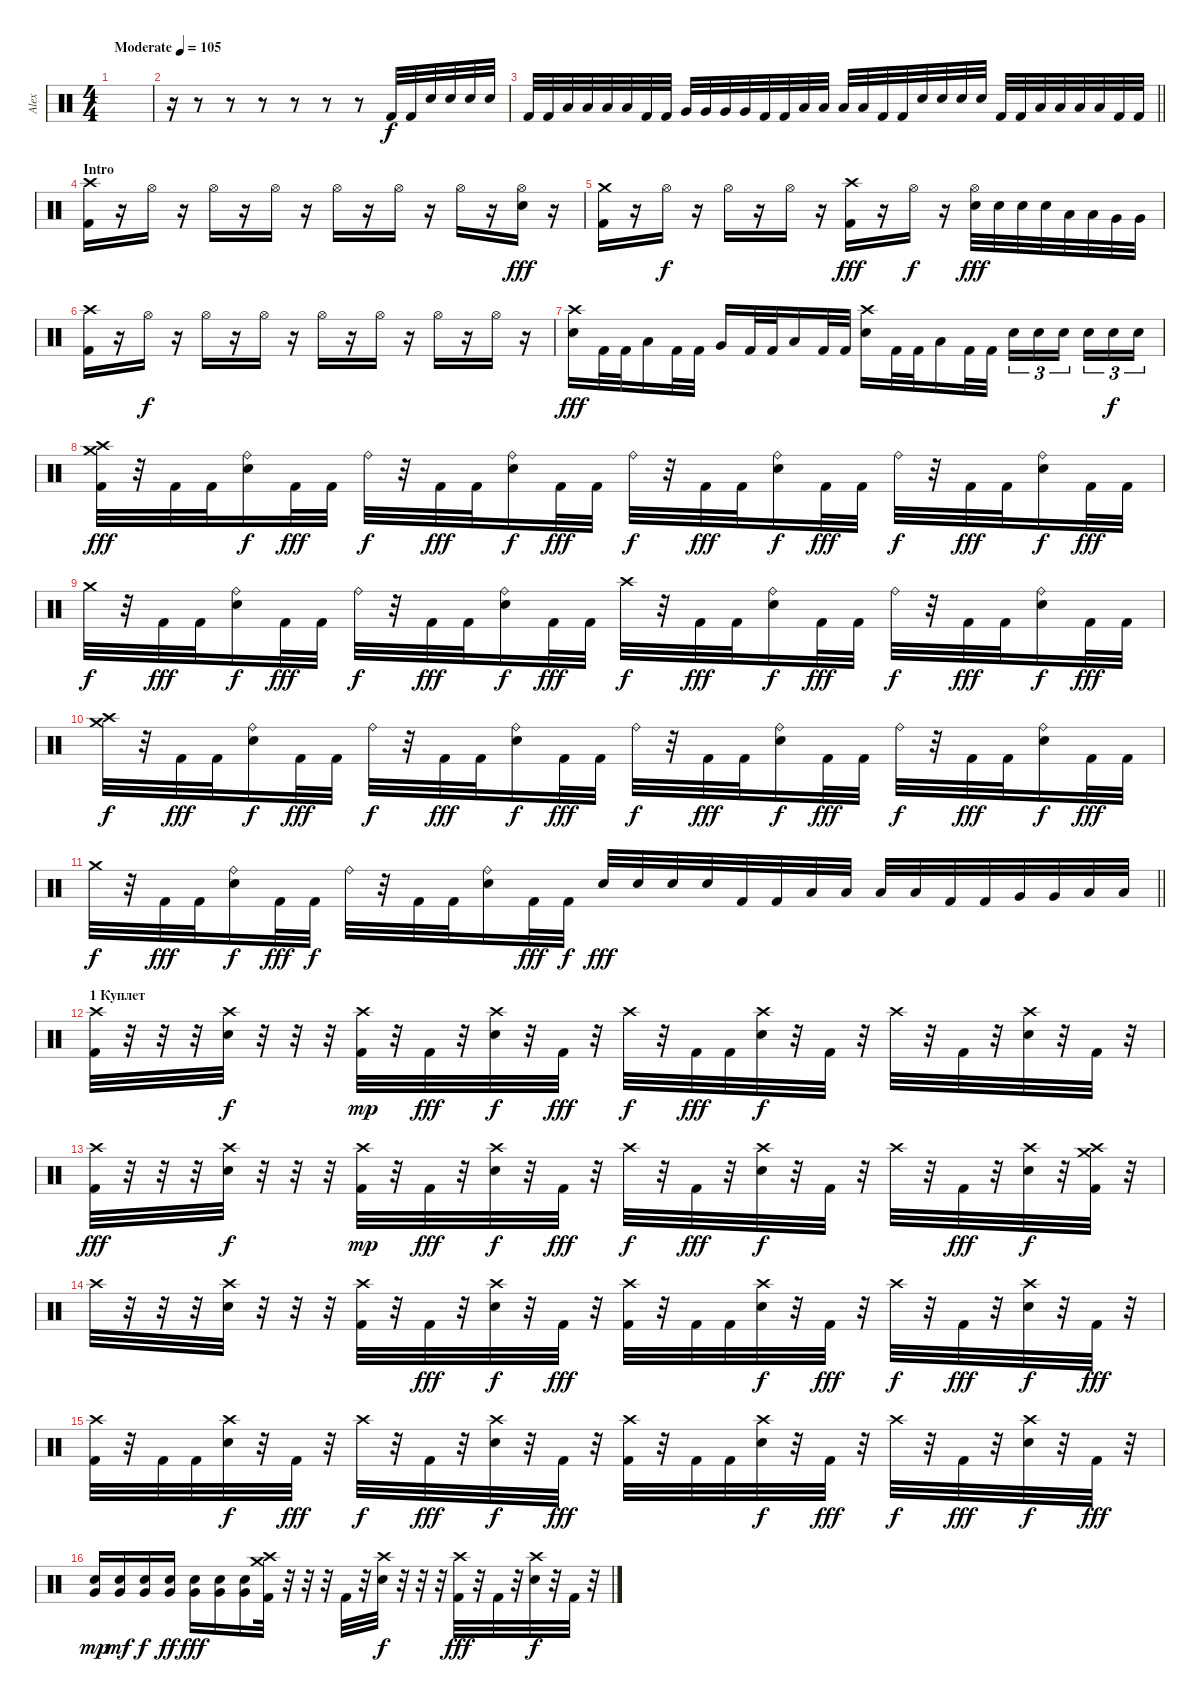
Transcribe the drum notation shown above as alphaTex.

\track ("Alex" "Alex") {instrument percussion}
\staff {score}
\articulation defaults
\ts (4 4)
\tempo (105 "Moderate")
\clef neutral
\ks c
|
r.16 r.8 r.8 r.8 r.8 r.8 r.8 "Kick (hit) 2".32 "Kick (hit) 2".32 "Electric Snare (hit)".32 "Electric Snare (hit)".32 "Electric Snare (hit)".32 "Electric Snare (hit)".32 |
\barLineRight lightlight "Kick (hit) 2".32 "Kick (hit) 2".32 "Low Tom (hit)".32 "Low Tom (hit)".32 "Low Tom (hit)".32 "Low Tom (hit)".32 "Kick (hit) 2".32 "Kick (hit) 2".32 "Very Low Tom (hit)".32 "Very Low Tom (hit)".32 "Very Low Tom (hit)".32 "Very Low Tom (hit)".32 "Kick (hit) 2".32 "Kick (hit) 2".32 "Low Floor Tom (hit)".32 "Low Floor Tom (hit)".32 "Low Floor Tom (hit)".32 "Low Floor Tom (hit)".32 "Kick (hit) 2".32 "Kick (hit) 2".32 "Electric Snare (hit)".32 "Electric Snare (hit)".32 "Electric Snare (hit)".32 "Electric Snare (hit)".32 "Kick (hit) 2".32 "Kick (hit) 2".32 "Low Tom (hit)".32 "Low Tom (hit)".32 "Low Tom (hit)".32 "Low Tom (hit)".32 "Kick (hit) 2".32 "Kick (hit) 2".32
|
\section ("" "Intro")
("Crash high (hit)" "Kick (hit) 2").16 r.16 "Hi-Hat (open)".16{dy f} r.16 "Hi-Hat (open)".16 r.16 "Hi-Hat (open)".16 r.16 "Hi-Hat (open)".16 r.16 "Hi-Hat (open)".16 r.16 "Hi-Hat (open)".16 r.16 ("Hi-Hat (open)" "Electric Snare (hit)").16{dy fff} r.16 |
("Crash medium (hit)" "Kick (hit) 2").16 r.16 "Hi-Hat (open)".16{dy f} r.16 "Hi-Hat (open)".16 r.16 "Hi-Hat (open)".16 r.16 ("Crash high (hit)" "Kick (hit) 2").16{dy fff} r.16 "Hi-Hat (open)".16{dy f} r.16 ("Hi-Hat (open)" "Electric Snare (hit)").32{dy fff} "Electric Snare (hit)".32 "Electric Snare (hit)".32 "Electric Snare (hit)".32 "Low Tom (hit)".32 "Low Tom (hit)".32 "Very Low Tom (hit)".32 "Very Low Tom (hit)".32 |
("Crash high (hit)" "Kick (hit) 2").16 r.16 "Hi-Hat (open)".16{dy f} r.16 "Hi-Hat (open)".16 r.16 "Hi-Hat (open)".16 r.16 "Hi-Hat (open)".16 r.16 "Hi-Hat (open)".16 r.16 "Hi-Hat (open)".16 r.16 "Hi-Hat (open)".16 r.16 |
("Crash high (hit)" "Electric Snare (hit)").16{dy fff} "Kick (hit) 2".32 "Kick (hit) 2".32 "Low Tom (hit)".16 "Kick (hit) 2".32 "Kick (hit) 2".32 "Very Low Tom (hit)".16 "Kick (hit) 2".32 "Kick (hit) 2".32 "Low Floor Tom (hit)".16 "Kick (hit) 2".32 "Kick (hit) 2".32 ("Crash high (hit)" "Electric Snare (hit)").16 "Kick (hit) 2".32 "Kick (hit) 2".32 "Low Tom (hit)".16 "Kick (hit) 2".32 "Kick (hit) 2".32 "Electric Snare (hit)".16{tu (3 2)} "Electric Snare (hit)".16{tu (3 2)} "Electric Snare (hit)".16{tu (3 2) beam splitsecondary} "Electric Snare (hit)".16{tu (3 2)} "Electric Snare (hit)".16{tu (3 2) dy f} "Electric Snare (hit)".16{tu (3 2)} |
("Crash high (hit)" "Crash medium (hit)" "Kick (hit) 2").32{dy fff} r.32 "Kick (hit) 2".32 "Kick (hit) 2".32 ("Ride (bell)" "Electric Snare (hit)").16{dy f} "Kick (hit) 2".32{dy fff} "Kick (hit) 2".32 "Ride (bell)".32{dy f} r.32 "Kick (hit) 2".32{dy fff} "Kick (hit) 2".32 ("Ride (bell)" "Electric Snare (hit)").16{dy f} "Kick (hit) 2".32{dy fff} "Kick (hit) 2".32 "Ride (bell)".32{dy f} r.32 "Kick (hit) 2".32{dy fff} "Kick (hit) 2".32 ("Ride (bell)" "Electric Snare (hit)").16{dy f} "Kick (hit) 2".32{dy fff} "Kick (hit) 2".32 "Ride (bell)".32{dy f} r.32 "Kick (hit) 2".32{dy fff} "Kick (hit) 2".32 ("Ride (bell)" "Electric Snare (hit)").16{dy f} "Kick (hit) 2".32{dy fff} "Kick (hit) 2".32 |
"Crash medium (hit)".32{dy f} r.32 "Kick (hit) 2".32{dy fff} "Kick (hit) 2".32 ("Ride (bell)" "Electric Snare (hit)").16{dy f} "Kick (hit) 2".32{dy fff} "Kick (hit) 2".32 "Ride (bell)".32{dy f} r.32 "Kick (hit) 2".32{dy fff} "Kick (hit) 2".32 ("Ride (bell)" "Electric Snare (hit)").16{dy f} "Kick (hit) 2".32{dy fff} "Kick (hit) 2".32 "Crash high (hit)".32{dy f} r.32 "Kick (hit) 2".32{dy fff} "Kick (hit) 2".32 ("Ride (bell)" "Electric Snare (hit)").16{dy f} "Kick (hit) 2".32{dy fff} "Kick (hit) 2".32 "Ride (bell)".32{dy f} r.32 "Kick (hit) 2".32{dy fff} "Kick (hit) 2".32 ("Ride (bell)" "Electric Snare (hit)").16{dy f} "Kick (hit) 2".32{dy fff} "Kick (hit) 2".32 |
("Crash high (hit)" "Crash medium (hit)").32{dy f} r.32 "Kick (hit) 2".32{dy fff} "Kick (hit) 2".32 ("Ride (bell)" "Electric Snare (hit)").16{dy f} "Kick (hit) 2".32{dy fff} "Kick (hit) 2".32 "Ride (bell)".32{dy f} r.32 "Kick (hit) 2".32{dy fff} "Kick (hit) 2".32 ("Ride (bell)" "Electric Snare (hit)").16{dy f} "Kick (hit) 2".32{dy fff} "Kick (hit) 2".32 "Ride (bell)".32{dy f} r.32 "Kick (hit) 2".32{dy fff} "Kick (hit) 2".32 ("Ride (bell)" "Electric Snare (hit)").16{dy f} "Kick (hit) 2".32{dy fff} "Kick (hit) 2".32 "Ride (bell)".32{dy f} r.32 "Kick (hit) 2".32{dy fff} "Kick (hit) 2".32 ("Ride (bell)" "Electric Snare (hit)").16{dy f} "Kick (hit) 2".32{dy fff} "Kick (hit) 2".32 |
\barLineRight lightlight "Crash medium (hit)".32{dy f}
r.32 "Kick (hit) 2".32{dy fff} "Kick (hit) 2".32 ("Ride (bell)" "Electric Snare (hit)").16{dy f} "Kick (hit) 2".32{dy fff} "Kick (hit) 2".32{dy f} "Ride (bell)".32 r.32 "Kick (hit) 2".32 "Kick (hit) 2".32 ("Ride (bell)" "Electric Snare (hit)").16 "Kick (hit) 2".32{dy fff} "Kick (hit) 2".32{dy f} "Electric Snare (hit)".32{dy fff} "Electric Snare (hit)".32 "Electric Snare (hit)".32 "Electric Snare (hit)".32 "Kick (hit) 2".32 "Kick (hit) 2".32 "Low Tom (hit)".32 "Low Tom (hit)".32 "Low Tom (hit)".32 "Low Tom (hit)".32 "Kick (hit) 2".32 "Kick (hit) 2".32 "Very Low Tom (hit)".32 "Very Low Tom (hit)".32 "Low Floor Tom (hit)".32 "Low Floor Tom (hit)".32 |
\section ("" "1 Куплет")
("Crash high (hit)" "Kick (hit) 2").32 r.32 r.32 r.32 ("Crash high (hit)" "Electric Snare (hit)").32{dy f} r.32 r.32 r.32 ("Crash high (hit)" "Kick (hit) 2").32{dy mp} r.32 "Kick (hit) 2".32{dy fff} r.32 ("Crash high (hit)" "Electric Snare (hit)").32{dy f} r.32 "Kick (hit) 2".32{dy fff} r.32 "Crash high (hit)".32{dy f} r.32 "Kick (hit) 2".32{dy fff} "Kick (hit) 2".32 ("Crash high (hit)" "Electric Snare (hit)").32{dy f} r.32 "Kick (hit) 2".32 r.32 "Crash high (hit)".32 r.32 "Kick (hit) 2".32 r.32 ("Crash high (hit)" "Electric Snare (hit)").32 r.32 "Kick (hit) 2".32 r.32 |
("Crash high (hit)" "Kick (hit) 2").32{dy fff} r.32 r.32 r.32 ("Crash high (hit)" "Electric Snare (hit)").32{dy f} r.32 r.32 r.32 ("Crash high (hit)" "Kick (hit) 2").32{dy mp} r.32 "Kick (hit) 2".32{dy fff} r.32 ("Crash high (hit)" "Electric Snare (hit)").32{dy f} r.32 "Kick (hit) 2".32{dy fff} r.32 "Crash high (hit)".32{dy f} r.32 "Kick (hit) 2".32{dy fff} r.32 ("Crash high (hit)" "Electric Snare (hit)").32{dy f} r.32 "Kick (hit) 2".32 r.32 "Crash high (hit)".32 r.32 "Kick (hit) 2".32{dy fff} r.32 ("Crash high (hit)" "Electric Snare (hit)").32{dy f} r.32 ("Crash high (hit)" "Crash medium (hit)" "Kick (hit) 2").32 r.32 |
"Crash high (hit)".32 r.32 r.32 r.32 ("Crash high (hit)" "Electric Snare (hit)").32 r.32 r.32 r.32 ("Crash high (hit)" "Kick (hit) 2").32 r.32 "Kick (hit) 2".32{dy fff} r.32 ("Crash high (hit)" "Electric Snare (hit)").32{dy f} r.32 "Kick (hit) 2".32{dy fff} r.32 ("Crash high (hit)" "Kick (hit) 2").32 r.32 "Kick (hit) 2".32 "Kick (hit) 2".32 ("Crash high (hit)" "Electric Snare (hit)").32{dy f} r.32 "Kick (hit) 2".32{dy fff} r.32 "Crash high (hit)".32{dy f} r.32 "Kick (hit) 2".32{dy fff} r.32 ("Crash high (hit)" "Electric Snare (hit)").32{dy f} r.32 "Kick (hit) 2".32{dy fff} r.32 |
("Crash high (hit)" "Kick (hit) 2").32 r.32 "Kick (hit) 2".32 "Kick (hit) 2".32 ("Crash high (hit)" "Electric Snare (hit)").32{dy f} r.32 "Kick (hit) 2".32{dy fff} r.32 "Crash high (hit)".32{dy f} r.32 "Kick (hit) 2".32{dy fff} r.32 ("Crash high (hit)" "Electric Snare (hit)").32{dy f} r.32 "Kick (hit) 2".32{dy fff} r.32 ("Crash high (hit)" "Kick (hit) 2").32 r.32 "Kick (hit) 2".32 "Kick (hit) 2".32 ("Crash high (hit)" "Electric Snare (hit)").32{dy f} r.32 "Kick (hit) 2".32{dy fff} r.32 "Crash high (hit)".32{dy f} r.32 "Kick (hit) 2".32{dy fff} r.32 ("Crash high (hit)" "Electric Snare (hit)").32{dy f} r.32 "Kick (hit) 2".32{dy fff} r.32 |
("Very Low Tom (hit)" "Electric Snare (hit)").16{dy mp} ("Very Low Tom (hit)" "Electric Snare (hit)").16{dy mf} ("Very Low Tom (hit)" "Electric Snare (hit)").16{dy f} ("Very Low Tom (hit)" "Electric Snare (hit)").16{dy ff} ("Very Low Tom (hit)" "Electric Snare (hit)").16{dy fff} ("Very Low Tom (hit)" "Electric Snare (hit)").16 ("Very Low Tom (hit)" "Electric Snare (hit)").16 ("Crash medium (hit)" "Crash high (hit)" "Kick (hit) 2").32 r.32 r.32 r.32 "Kick (hit) 2".32 r.32 ("Crash high (hit)" "Electric Snare (hit)").32{dy f} r.32 r.32 r.32 ("Crash high (hit)" "Kick (hit) 2").32{dy fff} r.32 "Kick (hit) 2".32 r.32 ("Crash high (hit)" "Electric Snare (hit)").32{dy f} r.32 "Kick (hit) 2".32 r.32
